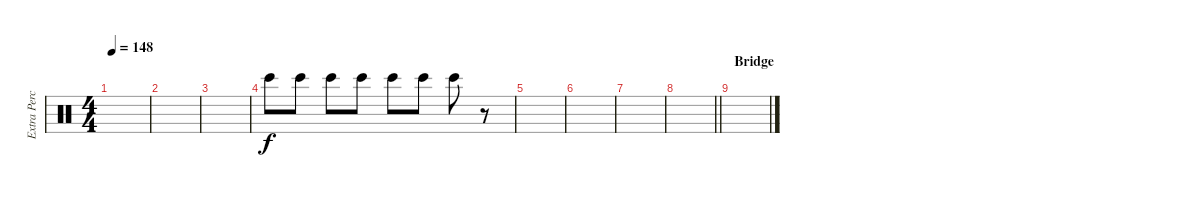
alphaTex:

\track ("Extra Percussion" "Extra Perc") {instrument percussion}
\staff {score}
\articulation defaults
\ts (4 4)
\tempo 148
\clef neutral
\ks c
|
|
|
"Bongo High (hit)".8 "Bongo High (hit)".8 "Bongo High (hit)".8 "Bongo High (hit)".8 "Bongo High (hit)".8 "Bongo High (hit)".8 "Bongo High (hit)".8 r.8 |
|
|
|
\barLineRight lightlight
|
\section ("" "Bridge")
